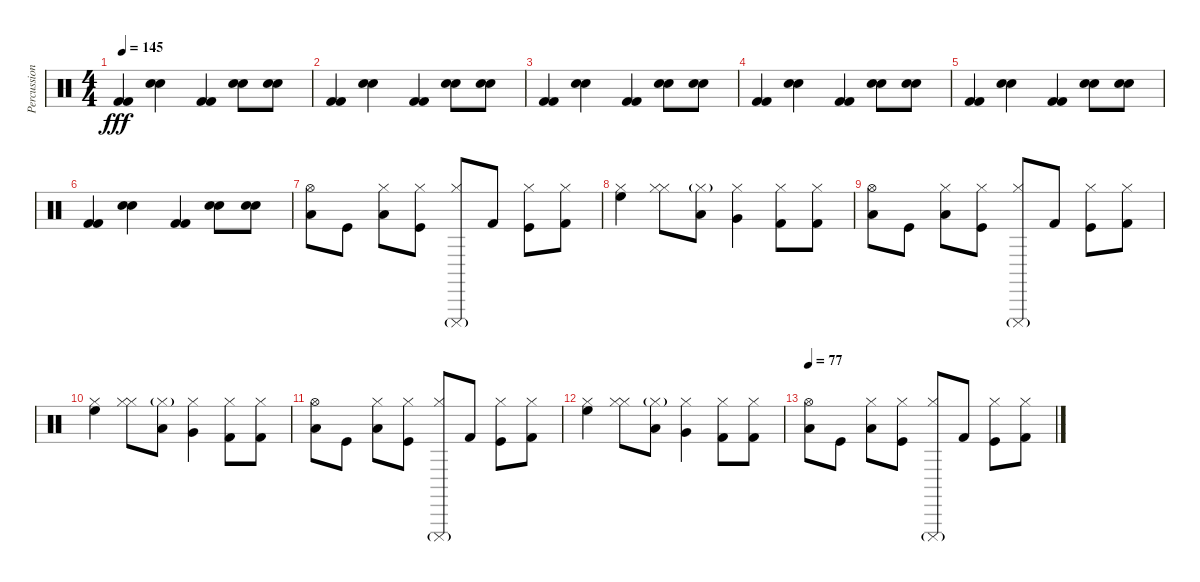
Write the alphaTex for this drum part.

\track ("Percussion ( Keyboard )" "Percussion") {instrument percussion bank 4}
\staff {score}
\articulation defaults
\ts (4 4)
\tempo 145
\clef neutral
\ks c
("Kick (hit) 2" "Kick (hit) 2").4{dy fff} ("Electric Snare (hit)" "Hand Clap (hit)").4 ("Kick (hit) 2" "Kick (hit) 2").4 ("Electric Snare (hit)" "Hand Clap (hit)").8 ("Electric Snare (hit)" "Hand Clap (hit)").8 |
("Kick (hit) 2" "Kick (hit) 2").4 ("Electric Snare (hit)" "Hand Clap (hit)").4 ("Kick (hit) 2" "Kick (hit) 2").4 ("Electric Snare (hit)" "Hand Clap (hit)").8 ("Electric Snare (hit)" "Hand Clap (hit)").8 |
("Kick (hit) 2" "Kick (hit) 2").4 ("Electric Snare (hit)" "Hand Clap (hit)").4 ("Kick (hit) 2" "Kick (hit) 2").4 ("Electric Snare (hit)" "Hand Clap (hit)").8 ("Electric Snare (hit)" "Hand Clap (hit)").8 |
("Kick (hit) 2" "Kick (hit) 2").4 ("Electric Snare (hit)" "Hand Clap (hit)").4 ("Kick (hit) 2" "Kick (hit) 2").4 ("Electric Snare (hit)" "Hand Clap (hit)").8 ("Electric Snare (hit)" "Hand Clap (hit)").8 |
("Kick (hit) 2" "Kick (hit) 2").4 ("Electric Snare (hit)" "Hand Clap (hit)").4 ("Kick (hit) 2" "Kick (hit) 2").4 ("Electric Snare (hit)" "Hand Clap (hit)").8 ("Electric Snare (hit)" "Hand Clap (hit)").8 |
("Kick (hit) 2" "Kick (hit) 2").4 ("Electric Snare (hit)" "Hand Clap (hit)").4 ("Kick (hit) 2" "Kick (hit) 2").4 ("Electric Snare (hit)" "Hand Clap (hit)").8 ("Electric Snare (hit)" "Hand Clap (hit)").8 |
("Low Tom (hit)" "Hi-Hat (open)").8 "Kick (hit)".8 ("Low Floor Tom (hit)" "Hi-Hat (closed)").8 ("Kick (hit)" "Hi-Hat (closed)").8 ("Cuica (mute)"{g} "Hi-Hat (closed)").8 "Kick (hit) 2".8 ("Kick (hit)" "Hi-Hat (closed)").8 ("Kick (hit) 2" "Hi-Hat (closed)").8 |
("High Floor Tom (hit)" "Hi-Hat (closed)").4 ("Hi-Hat (closed)" "Hi-Hat (closed)").8 ("Low Floor Tom (hit)" "Hi-Hat (closed)"{g}).8 ("Very Low Tom (hit)" "Hi-Hat (closed)").4 ("Kick (hit) 2" "Hi-Hat (closed)").8 ("Kick (hit) 2" "Hi-Hat (closed)").8 |
("Low Tom (hit)" "Hi-Hat (open)").8 "Kick (hit)".8 ("Low Floor Tom (hit)" "Hi-Hat (closed)").8 ("Kick (hit)" "Hi-Hat (closed)").8 ("Cuica (mute)"{g} "Hi-Hat (closed)").8 "Kick (hit) 2".8 ("Kick (hit)" "Hi-Hat (closed)").8 ("Kick (hit) 2" "Hi-Hat (closed)").8 |
("High Floor Tom (hit)" "Hi-Hat (closed)").4 ("Hi-Hat (closed)" "Hi-Hat (closed)").8 ("Low Floor Tom (hit)" "Hi-Hat (closed)"{g}).8 ("Very Low Tom (hit)" "Hi-Hat (closed)").4 ("Kick (hit) 2" "Hi-Hat (closed)").8 ("Kick (hit) 2" "Hi-Hat (closed)").8 |
("Low Tom (hit)" "Hi-Hat (open)").8 "Kick (hit)".8 ("Low Floor Tom (hit)" "Hi-Hat (closed)").8 ("Kick (hit)" "Hi-Hat (closed)").8 ("Cuica (mute)"{g} "Hi-Hat (closed)").8 "Kick (hit) 2".8 ("Kick (hit)" "Hi-Hat (closed)").8 ("Kick (hit) 2" "Hi-Hat (closed)").8 |
("High Floor Tom (hit)" "Hi-Hat (closed)").4 ("Hi-Hat (closed)" "Hi-Hat (closed)").8 ("Low Floor Tom (hit)" "Hi-Hat (closed)"{g}).8 ("Very Low Tom (hit)" "Hi-Hat (closed)").4 ("Kick (hit) 2" "Hi-Hat (closed)").8 ("Kick (hit) 2" "Hi-Hat (closed)").8 |
\tempo 77
("Low Tom (hit)" "Hi-Hat (open)").8 "Kick (hit)".8 ("Low Floor Tom (hit)" "Hi-Hat (closed)").8 ("Kick (hit)" "Hi-Hat (closed)").8 ("Cuica (mute)"{g} "Hi-Hat (closed)").8 "Kick (hit) 2".8 ("Kick (hit)" "Hi-Hat (closed)").8 ("Kick (hit) 2" "Hi-Hat (closed)").8
